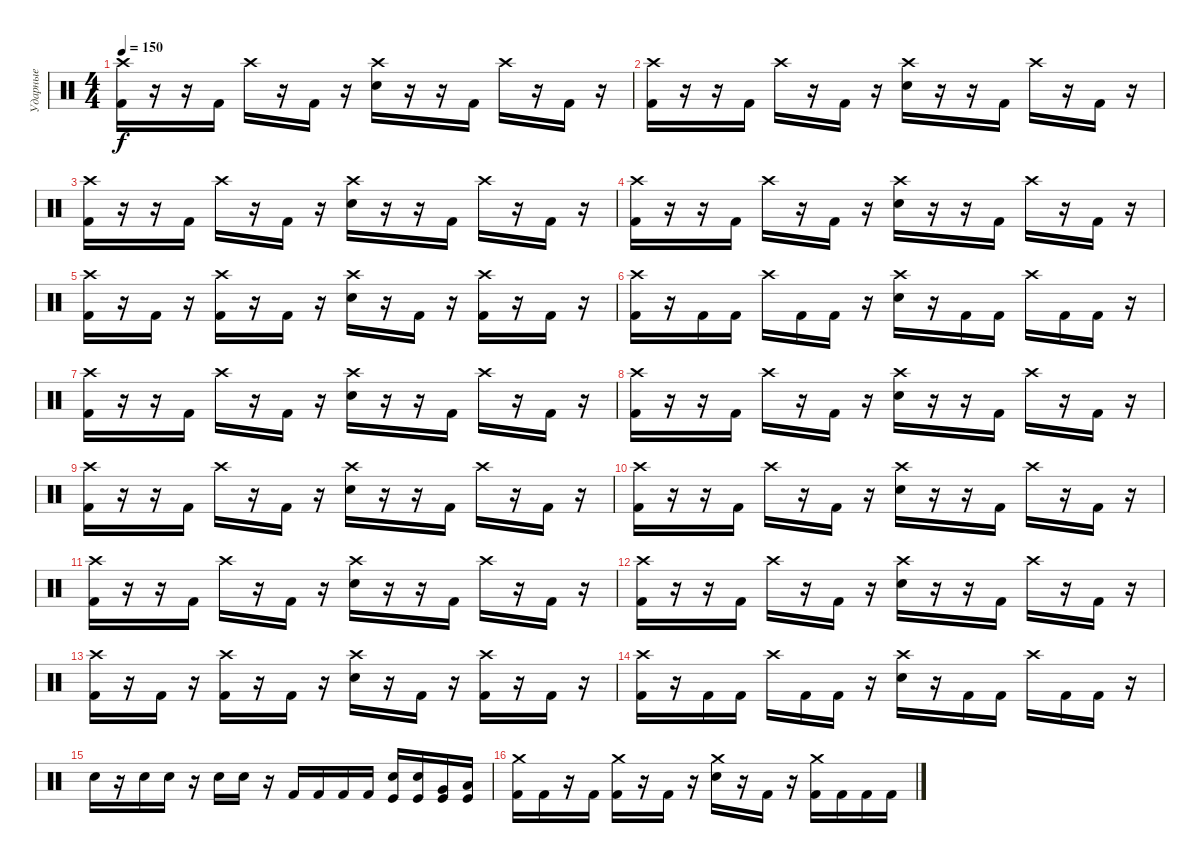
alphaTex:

\track ("Ударные" "Ударные") {instrument percussion}
\staff {score}
\articulation defaults
\ts (4 4)
\tempo 150
\clef neutral
\ks c
("Crash high (hit)" "Kick (hit) 2").16{dy f} r.16 r.16 "Kick (hit) 2".16 "Crash high (hit)".16 r.16 "Kick (hit) 2".16 r.16 ("Crash high (hit)" "Electric Snare (hit)").16 r.16 r.16 "Kick (hit) 2".16 "Crash high (hit)".16 r.16 "Kick (hit) 2".16 r.16 |
("Crash high (hit)" "Kick (hit) 2").16 r.16 r.16 "Kick (hit) 2".16 "Crash high (hit)".16 r.16 "Kick (hit) 2".16 r.16 ("Crash high (hit)" "Electric Snare (hit)").16 r.16 r.16 "Kick (hit) 2".16 "Crash high (hit)".16 r.16 "Kick (hit) 2".16 r.16 |
("Crash high (hit)" "Kick (hit) 2").16 r.16 r.16 "Kick (hit) 2".16 "Crash high (hit)".16 r.16 "Kick (hit) 2".16 r.16 ("Crash high (hit)" "Electric Snare (hit)").16 r.16 r.16 "Kick (hit) 2".16 "Crash high (hit)".16 r.16 "Kick (hit) 2".16 r.16 |
("Crash high (hit)" "Kick (hit) 2").16 r.16 r.16 "Kick (hit) 2".16 "Crash high (hit)".16 r.16 "Kick (hit) 2".16 r.16 ("Crash high (hit)" "Electric Snare (hit)").16 r.16 r.16 "Kick (hit) 2".16 "Crash high (hit)".16 r.16 "Kick (hit) 2".16 r.16 |
("Crash high (hit)" "Kick (hit) 2").16 r.16 "Kick (hit) 2".16 r.16 ("Crash high (hit)" "Kick (hit) 2").16 r.16 "Kick (hit) 2".16 r.16 ("Crash high (hit)" "Electric Snare (hit)").16 r.16 "Kick (hit) 2".16 r.16 ("Crash high (hit)" "Kick (hit) 2").16 r.16 "Kick (hit) 2".16 r.16 |
("Crash high (hit)" "Kick (hit) 2").16 r.16 "Kick (hit) 2".16 "Kick (hit) 2".16 "Crash high (hit)".16 "Kick (hit) 2".16 "Kick (hit) 2".16 r.16 ("Crash high (hit)" "Electric Snare (hit)").16 r.16 "Kick (hit) 2".16 "Kick (hit) 2".16 "Crash high (hit)".16 "Kick (hit) 2".16 "Kick (hit) 2".16 r.16 |
("Crash high (hit)" "Kick (hit) 2").16 r.16 r.16 "Kick (hit) 2".16 "Crash high (hit)".16 r.16 "Kick (hit) 2".16 r.16 ("Crash high (hit)" "Electric Snare (hit)").16 r.16 r.16 "Kick (hit) 2".16 "Crash high (hit)".16 r.16 "Kick (hit) 2".16 r.16 |
("Crash high (hit)" "Kick (hit) 2").16 r.16 r.16 "Kick (hit) 2".16 "Crash high (hit)".16 r.16 "Kick (hit) 2".16 r.16 ("Crash high (hit)" "Electric Snare (hit)").16 r.16 r.16 "Kick (hit) 2".16 "Crash high (hit)".16 r.16 "Kick (hit) 2".16 r.16 |
("Crash high (hit)" "Kick (hit) 2").16 r.16 r.16 "Kick (hit) 2".16 "Crash high (hit)".16 r.16 "Kick (hit) 2".16 r.16 ("Crash high (hit)" "Electric Snare (hit)").16 r.16 r.16 "Kick (hit) 2".16 "Crash high (hit)".16 r.16 "Kick (hit) 2".16 r.16 |
("Crash high (hit)" "Kick (hit) 2").16 r.16 r.16 "Kick (hit) 2".16 "Crash high (hit)".16 r.16 "Kick (hit) 2".16 r.16 ("Crash high (hit)" "Electric Snare (hit)").16 r.16 r.16 "Kick (hit) 2".16 "Crash high (hit)".16 r.16 "Kick (hit) 2".16 r.16 |
("Crash high (hit)" "Kick (hit) 2").16 r.16 r.16 "Kick (hit) 2".16 "Crash high (hit)".16 r.16 "Kick (hit) 2".16 r.16 ("Crash high (hit)" "Electric Snare (hit)").16 r.16 r.16 "Kick (hit) 2".16 "Crash high (hit)".16 r.16 "Kick (hit) 2".16 r.16 |
("Crash high (hit)" "Kick (hit) 2").16 r.16 r.16 "Kick (hit) 2".16 "Crash high (hit)".16 r.16 "Kick (hit) 2".16 r.16 ("Crash high (hit)" "Electric Snare (hit)").16 r.16 r.16 "Kick (hit) 2".16 "Crash high (hit)".16 r.16 "Kick (hit) 2".16 r.16 |
("Crash high (hit)" "Kick (hit) 2").16 r.16 "Kick (hit) 2".16 r.16 ("Crash high (hit)" "Kick (hit) 2").16 r.16 "Kick (hit) 2".16 r.16 ("Crash high (hit)" "Electric Snare (hit)").16 r.16 "Kick (hit) 2".16 r.16 ("Crash high (hit)" "Kick (hit) 2").16 r.16 "Kick (hit) 2".16 r.16 |
("Crash high (hit)" "Kick (hit) 2").16 r.16 "Kick (hit) 2".16 "Kick (hit) 2".16 "Crash high (hit)".16 "Kick (hit) 2".16 "Kick (hit) 2".16 r.16 ("Crash high (hit)" "Electric Snare (hit)").16 r.16 "Kick (hit) 2".16 "Kick (hit) 2".16 "Crash high (hit)".16 "Kick (hit) 2".16 "Kick (hit) 2".16 r.16 |
"Electric Snare (hit)".16 r.16 "Electric Snare (hit)".16 "Electric Snare (hit)".16 r.16 "Electric Snare (hit)".16 "Electric Snare (hit)".16 r.16 "Kick (hit) 2".16 "Kick (hit) 2".16 "Kick (hit) 2".16 "Kick (hit) 2".16 ("Kick (hit)" "Electric Snare (hit)").16 ("Kick (hit)" "Electric Snare (hit)").16 ("Kick (hit)" "Very Low Tom (hit)").16 ("Kick (hit)" "Low Floor Tom (hit)").16 |
("Crash medium (hit)" "Kick (hit) 2").16 "Kick (hit) 2".16 r.16 "Kick (hit) 2".16 ("Crash medium (hit)" "Kick (hit) 2").16 r.16 "Kick (hit) 2".16 r.16 ("Crash medium (hit)" "Electric Snare (hit)").16 r.16 "Kick (hit) 2".16 r.16 ("Crash medium (hit)" "Kick (hit) 2").16 "Kick (hit) 2".16 "Kick (hit) 2".16 "Kick (hit) 2".16
